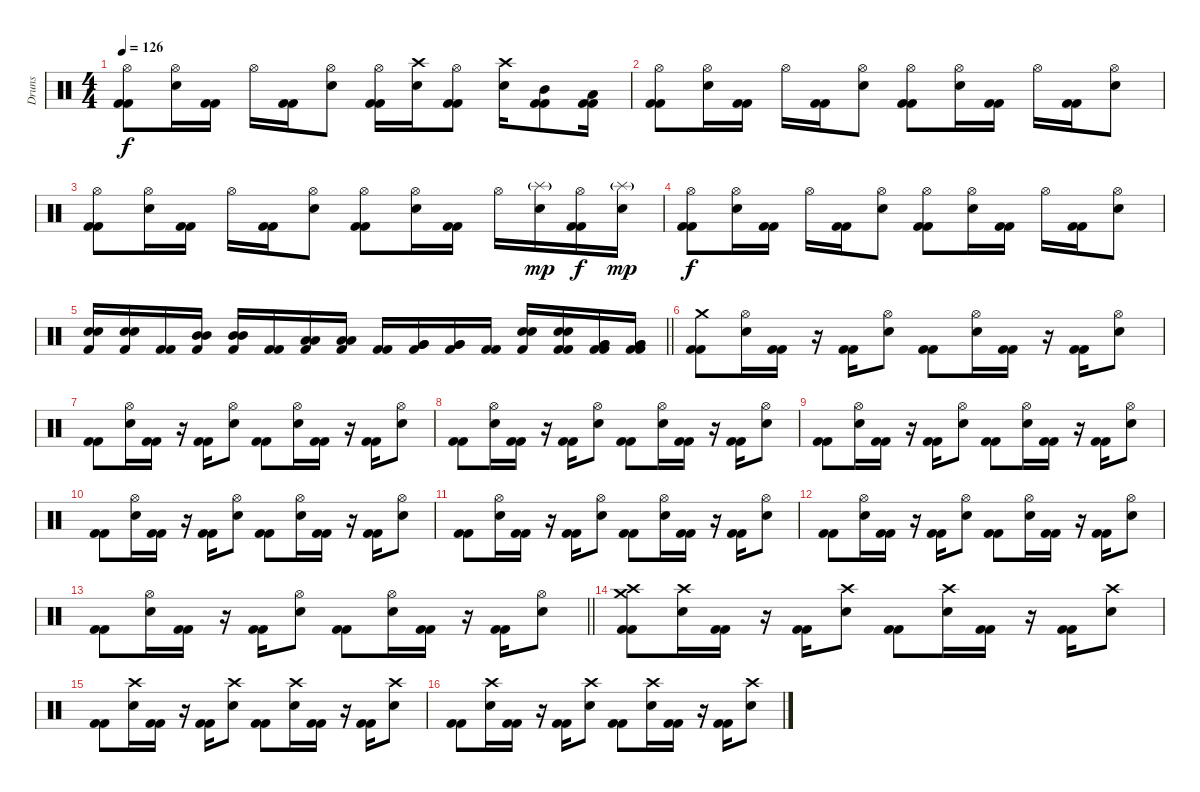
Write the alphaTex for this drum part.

\track ("Druns" "Druns") {instrument percussion}
\staff {score}
\articulation defaults
\ts (4 4)
\tempo 126
\clef neutral
\ks c
("Hi-Hat (open)" "Kick (hit) 2" "Kick (hit) 2").8{dy f} ("Hi-Hat (open)" "Electric Snare (hit)").16 ("Kick (hit) 2" "Kick (hit) 2").16 "Hi-Hat (open)".16 ("Kick (hit) 2" "Kick (hit) 2").16 ("Hi-Hat (open)" "Electric Snare (hit)").8 ("Hi-Hat (open)" "Kick (hit) 2" "Kick (hit) 2").16 ("Crash high (hit)" "Electric Snare (hit)").16 ("Hi-Hat (open)" "Kick (hit) 2" "Kick (hit) 2").8 ("Crash high (hit)" "Electric Snare (hit)").16 ("Mid Tom (hit)" "Kick (hit) 2" "Kick (hit) 2").8 ("Low Tom (hit)" "Kick (hit) 2" "Kick (hit) 2").16 |
("Hi-Hat (open)" "Kick (hit) 2" "Kick (hit) 2").8 ("Hi-Hat (open)" "Electric Snare (hit)").16 ("Kick (hit) 2" "Kick (hit) 2").16 "Hi-Hat (open)".16 ("Kick (hit) 2" "Kick (hit) 2").16 ("Hi-Hat (open)" "Electric Snare (hit)").8 ("Hi-Hat (open)" "Kick (hit) 2" "Kick (hit) 2").8 ("Hi-Hat (open)" "Electric Snare (hit)").16 ("Kick (hit) 2" "Kick (hit) 2").16 "Hi-Hat (open)".16 ("Kick (hit) 2" "Kick (hit) 2").16 ("Hi-Hat (open)" "Electric Snare (hit)").8 |
("Hi-Hat (open)" "Kick (hit) 2" "Kick (hit) 2").8 ("Hi-Hat (open)" "Electric Snare (hit)").16 ("Kick (hit) 2" "Kick (hit) 2").16 "Hi-Hat (open)".16 ("Kick (hit) 2" "Kick (hit) 2").16 ("Hi-Hat (open)" "Electric Snare (hit)").8 ("Hi-Hat (open)" "Kick (hit) 2" "Kick (hit) 2").8 ("Hi-Hat (open)" "Electric Snare (hit)").16 ("Kick (hit) 2" "Kick (hit) 2").16 "Hi-Hat (open)".16 ("Splash (hit)"{g} "Electric Snare (hit)").16{dy mp} ("Hi-Hat (open)" "Kick (hit) 2" "Kick (hit) 2").16{dy f} ("Splash (hit)"{g} "Electric Snare (hit)").16{dy mp} |
("Hi-Hat (open)" "Kick (hit) 2" "Kick (hit) 2").8{dy f} ("Hi-Hat (open)" "Electric Snare (hit)").16 ("Kick (hit) 2" "Kick (hit) 2").16 "Hi-Hat (open)".16 ("Kick (hit) 2" "Kick (hit) 2").16 ("Hi-Hat (open)" "Electric Snare (hit)").8 ("Hi-Hat (open)" "Kick (hit) 2" "Kick (hit) 2").8 ("Hi-Hat (open)" "Electric Snare (hit)").16 ("Kick (hit) 2" "Kick (hit) 2").16 "Hi-Hat (open)".16 ("Kick (hit) 2" "Kick (hit) 2").16 ("Hi-Hat (open)" "Electric Snare (hit)").8 |
\barLineRight lightlight
("Electric Snare (hit)" "Electric Snare (hit)" "Kick (hit) 2").16 ("Electric Snare (hit)" "Electric Snare (hit)" "Kick (hit) 2").16 ("Kick (hit) 2" "Kick (hit) 2").16 ("Mid Tom (hit)" "Mid Tom (hit)" "Kick (hit) 2").16 ("Mid Tom (hit)" "Mid Tom (hit)" "Kick (hit) 2").16 ("Kick (hit) 2" "Kick (hit) 2").16 ("Low Tom (hit)" "Low Tom (hit)" "Kick (hit) 2").16 ("Low Tom (hit)" "Low Tom (hit)" "Kick (hit) 2").16 ("Kick (hit) 2" "Kick (hit) 2").16 ("Very Low Tom (hit)" "Very Low Tom (hit)" "Kick (hit) 2").16 ("Very Low Tom (hit)" "Very Low Tom (hit)" "Kick (hit) 2").16 ("Kick (hit) 2" "Kick (hit) 2").16 ("Electric Snare (hit)" "Electric Snare (hit)" "Kick (hit) 2").16 ("Electric Snare (hit)" "Electric Snare (hit)" "Kick (hit) 2" "Kick (hit) 2").16 ("Very Low Tom (hit)" "Very Low Tom (hit)" "Kick (hit) 2" "Kick (hit) 2").16 ("Very Low Tom (hit)" "Very Low Tom (hit)" "Kick (hit) 2" "Kick (hit) 2").16 |
("Crash medium (hit)" "Kick (hit) 2" "Kick (hit) 2").8 ("Hi-Hat (open)" "Electric Snare (hit)").16 ("Kick (hit) 2" "Kick (hit) 2").16 r.16 ("Kick (hit) 2" "Kick (hit) 2").16 ("Hi-Hat (open)" "Electric Snare (hit)").8 ("Kick (hit) 2" "Kick (hit) 2").8 ("Hi-Hat (open)" "Electric Snare (hit)").16 ("Kick (hit) 2" "Kick (hit) 2").16 r.16 ("Kick (hit) 2" "Kick (hit) 2").16 ("Hi-Hat (open)" "Electric Snare (hit)").8 |
("Kick (hit) 2" "Kick (hit) 2").8 ("Hi-Hat (open)" "Electric Snare (hit)").16 ("Kick (hit) 2" "Kick (hit) 2").16 r.16 ("Kick (hit) 2" "Kick (hit) 2").16 ("Hi-Hat (open)" "Electric Snare (hit)").8 ("Kick (hit) 2" "Kick (hit) 2").8 ("Hi-Hat (open)" "Electric Snare (hit)").16 ("Kick (hit) 2" "Kick (hit) 2").16 r.16 ("Kick (hit) 2" "Kick (hit) 2").16 ("Hi-Hat (open)" "Electric Snare (hit)").8 |
("Kick (hit) 2" "Kick (hit) 2").8 ("Hi-Hat (open)" "Electric Snare (hit)").16 ("Kick (hit) 2" "Kick (hit) 2").16 r.16 ("Kick (hit) 2" "Kick (hit) 2").16 ("Hi-Hat (open)" "Electric Snare (hit)").8 ("Kick (hit) 2" "Kick (hit) 2").8 ("Hi-Hat (open)" "Electric Snare (hit)").16 ("Kick (hit) 2" "Kick (hit) 2").16 r.16 ("Kick (hit) 2" "Kick (hit) 2").16 ("Hi-Hat (open)" "Electric Snare (hit)").8 |
("Kick (hit) 2" "Kick (hit) 2").8 ("Hi-Hat (open)" "Electric Snare (hit)").16 ("Kick (hit) 2" "Kick (hit) 2").16 r.16 ("Kick (hit) 2" "Kick (hit) 2").16 ("Hi-Hat (open)" "Electric Snare (hit)").8 ("Kick (hit) 2" "Kick (hit) 2").8 ("Hi-Hat (open)" "Electric Snare (hit)").16 ("Kick (hit) 2" "Kick (hit) 2").16 r.16 ("Kick (hit) 2" "Kick (hit) 2").16 ("Hi-Hat (open)" "Electric Snare (hit)").8 |
("Kick (hit) 2" "Kick (hit) 2").8 ("Hi-Hat (open)" "Electric Snare (hit)").16 ("Kick (hit) 2" "Kick (hit) 2").16 r.16 ("Kick (hit) 2" "Kick (hit) 2").16 ("Hi-Hat (open)" "Electric Snare (hit)").8 ("Kick (hit) 2" "Kick (hit) 2").8 ("Hi-Hat (open)" "Electric Snare (hit)").16 ("Kick (hit) 2" "Kick (hit) 2").16 r.16 ("Kick (hit) 2" "Kick (hit) 2").16 ("Hi-Hat (open)" "Electric Snare (hit)").8 |
("Kick (hit) 2" "Kick (hit) 2").8 ("Hi-Hat (open)" "Electric Snare (hit)").16 ("Kick (hit) 2" "Kick (hit) 2").16 r.16 ("Kick (hit) 2" "Kick (hit) 2").16 ("Hi-Hat (open)" "Electric Snare (hit)").8 ("Kick (hit) 2" "Kick (hit) 2").8 ("Hi-Hat (open)" "Electric Snare (hit)").16 ("Kick (hit) 2" "Kick (hit) 2").16 r.16 ("Kick (hit) 2" "Kick (hit) 2").16 ("Hi-Hat (open)" "Electric Snare (hit)").8 |
("Kick (hit) 2" "Kick (hit) 2").8 ("Hi-Hat (open)" "Electric Snare (hit)").16 ("Kick (hit) 2" "Kick (hit) 2").16 r.16 ("Kick (hit) 2" "Kick (hit) 2").16 ("Hi-Hat (open)" "Electric Snare (hit)").8 ("Kick (hit) 2" "Kick (hit) 2").8 ("Hi-Hat (open)" "Electric Snare (hit)").16 ("Kick (hit) 2" "Kick (hit) 2").16 r.16 ("Kick (hit) 2" "Kick (hit) 2").16 ("Hi-Hat (open)" "Electric Snare (hit)").8 |
\barLineRight lightlight
("Kick (hit) 2" "Kick (hit) 2").8 ("Hi-Hat (open)" "Electric Snare (hit)").16 ("Kick (hit) 2" "Kick (hit) 2").16 r.16 ("Kick (hit) 2" "Kick (hit) 2").16 ("Hi-Hat (open)" "Electric Snare (hit)").8 ("Kick (hit) 2" "Kick (hit) 2").8 ("Hi-Hat (open)" "Electric Snare (hit)").16 ("Kick (hit) 2" "Kick (hit) 2").16 r.16 ("Kick (hit) 2" "Kick (hit) 2").16 ("Hi-Hat (open)" "Electric Snare (hit)").8 |
\section ("" "")
("Crash medium (hit)" "Crash high (hit)" "Kick (hit) 2" "Kick (hit) 2").8 ("Crash high (hit)" "Electric Snare (hit)").16 ("Kick (hit) 2" "Kick (hit) 2").16 r.16 ("Kick (hit) 2" "Kick (hit) 2").16 ("Crash high (hit)" "Electric Snare (hit)").8 ("Kick (hit) 2" "Kick (hit) 2").8 ("Crash high (hit)" "Electric Snare (hit)").16 ("Kick (hit) 2" "Kick (hit) 2").16 r.16 ("Kick (hit) 2" "Kick (hit) 2").16 ("Crash high (hit)" "Electric Snare (hit)").8 |
("Kick (hit) 2" "Kick (hit) 2").8 ("Crash high (hit)" "Electric Snare (hit)").16 ("Kick (hit) 2" "Kick (hit) 2").16 r.16 ("Kick (hit) 2" "Kick (hit) 2").16 ("Crash high (hit)" "Electric Snare (hit)").8 ("Kick (hit) 2" "Kick (hit) 2").8 ("Crash high (hit)" "Electric Snare (hit)").16 ("Kick (hit) 2" "Kick (hit) 2").16 r.16 ("Kick (hit) 2" "Kick (hit) 2").16 ("Crash high (hit)" "Electric Snare (hit)").8 |
("Kick (hit) 2" "Kick (hit) 2").8 ("Crash high (hit)" "Electric Snare (hit)").16 ("Kick (hit) 2" "Kick (hit) 2").16 r.16 ("Kick (hit) 2" "Kick (hit) 2").16 ("Crash high (hit)" "Electric Snare (hit)").8 ("Kick (hit) 2" "Kick (hit) 2").8 ("Crash high (hit)" "Electric Snare (hit)").16 ("Kick (hit) 2" "Kick (hit) 2").16 r.16 ("Kick (hit) 2" "Kick (hit) 2").16 ("Crash high (hit)" "Electric Snare (hit)").8
